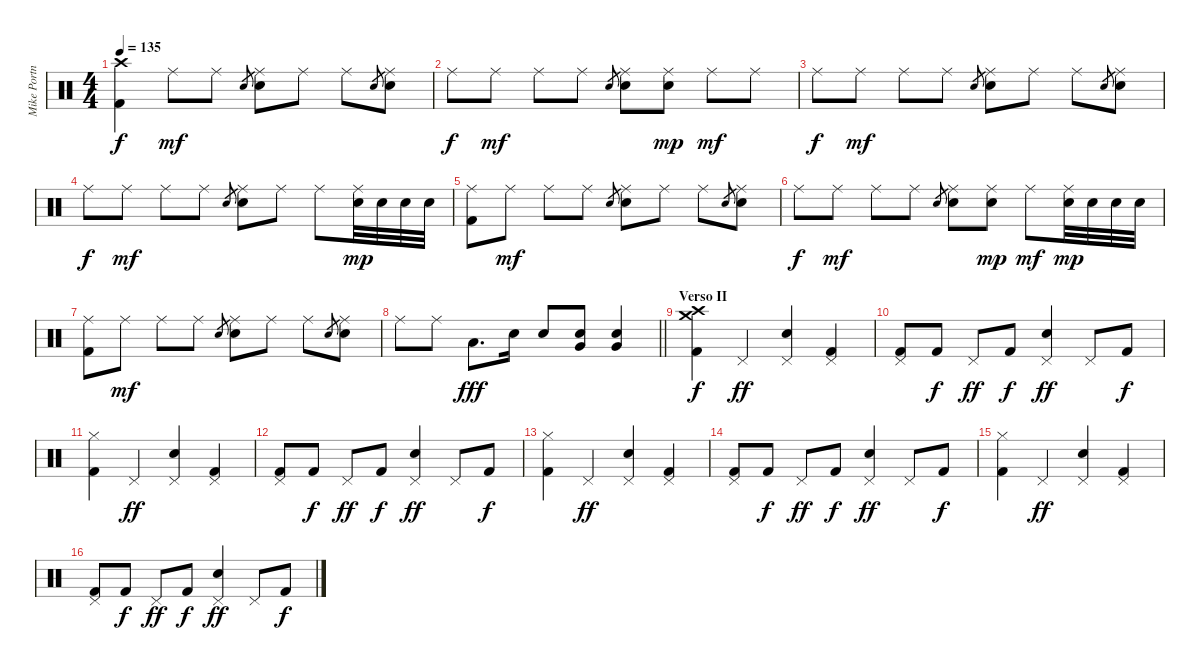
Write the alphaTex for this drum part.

\track ("Mike Portnoy" "Mike Portn") {instrument percussion}
\staff {score}
\articulation defaults
\ts (4 4)
\tempo 135
\clef neutral
\ks c
("Crash high (hit)" "Kick (hit) 2").4{dy f} "Ride (middle)".8{dy mf} "Ride (middle)".8 "Electric Snare (hit)".8{gr} ("Ride (middle)" "Electric Snare (hit)").8 "Ride (middle)".8 "Ride (middle)".8 "Electric Snare (hit)".8{gr} ("Ride (middle)" "Electric Snare (hit)").8 |
"Ride (middle)".8{dy f} "Ride (middle)".8{dy mf} "Ride (middle)".8 "Ride (middle)".8 "Electric Snare (hit)".8{gr} ("Ride (middle)" "Electric Snare (hit)").8 ("Ride (middle)" "Electric Snare (hit)").8{dy mp} "Ride (middle)".8{dy mf} "Ride (middle)".8 |
"Ride (middle)".8{dy f} "Ride (middle)".8{dy mf} "Ride (middle)".8 "Ride (middle)".8 "Electric Snare (hit)".8{gr} ("Ride (middle)" "Electric Snare (hit)").8 "Ride (middle)".8 "Ride (middle)".8 "Electric Snare (hit)".8{gr} ("Ride (middle)" "Electric Snare (hit)").8 |
"Ride (middle)".8{dy f} "Ride (middle)".8{dy mf} "Ride (middle)".8 "Ride (middle)".8 "Electric Snare (hit)".8{gr} ("Ride (middle)" "Electric Snare (hit)").8 "Ride (middle)".8 "Ride (middle)".8 ("Ride (middle)" "Electric Snare (hit)").32{dy mp} "Electric Snare (hit)".32 "Electric Snare (hit)".32 "Electric Snare (hit)".32 |
("Ride (middle)" "Kick (hit) 2").8 "Ride (middle)".8{dy mf} "Ride (middle)".8 "Ride (middle)".8 "Electric Snare (hit)".8{gr} ("Ride (middle)" "Electric Snare (hit)").8 "Ride (middle)".8 "Ride (middle)".8 "Electric Snare (hit)".8{gr} ("Ride (middle)" "Electric Snare (hit)").8 |
"Ride (middle)".8{dy f} "Ride (middle)".8{dy mf} "Ride (middle)".8 "Ride (middle)".8 "Electric Snare (hit)".8{gr} ("Ride (middle)" "Electric Snare (hit)").8 ("Ride (middle)" "Electric Snare (hit)").8{dy mp} "Ride (middle)".8{dy mf} ("Ride (middle)" "Electric Snare (hit)").32{dy mp} "Electric Snare (hit)".32 "Electric Snare (hit)".32 "Electric Snare (hit)".32 |
("Ride (middle)" "Kick (hit) 2").8 "Ride (middle)".8{dy mf} "Ride (middle)".8 "Ride (middle)".8 "Electric Snare (hit)".8{gr} ("Ride (middle)" "Electric Snare (hit)").8 "Ride (middle)".8 "Ride (middle)".8 "Electric Snare (hit)".8{gr} ("Ride (middle)" "Electric Snare (hit)").8 |
\barLineRight lightlight "Ride (middle)".8 "Ride (middle)".8 "Low Tom (hit)".8{d dy fff} "Snare (hit) 2".16 "Electric Snare (hit)".8
("Electric Snare (hit)" "Very Low Tom (hit)").8 ("Electric Snare (hit)" "Very Low Tom (hit)").4 |
\section ("" "Verso II")
("Crash high (hit)" "Crash medium (hit)" "Kick (hit) 2").4{dy f} "Pedal Hi-Hat (hit)".4{dy ff} ("Pedal Hi-Hat (hit)" "Electric Snare (hit)").4 ("Pedal Hi-Hat (hit)" "Kick (hit) 2").4 |
("Pedal Hi-Hat (hit)" "Kick (hit) 2").8 "Kick (hit) 2".8{dy f} "Pedal Hi-Hat (hit)".8{dy ff} "Kick (hit) 2".8{dy f} ("Pedal Hi-Hat (hit)" "Electric Snare (hit)").4{dy ff} "Pedal Hi-Hat (hit)".8 "Kick (hit) 2".8{dy f} |
("Hi-Hat (closed)" "Kick (hit) 2").4 "Pedal Hi-Hat (hit)".4{dy ff} ("Pedal Hi-Hat (hit)" "Electric Snare (hit)").4 ("Pedal Hi-Hat (hit)" "Kick (hit) 2").4 |
("Pedal Hi-Hat (hit)" "Kick (hit) 2").8 "Kick (hit) 2".8{dy f} "Pedal Hi-Hat (hit)".8{dy ff} "Kick (hit) 2".8{dy f} ("Pedal Hi-Hat (hit)" "Electric Snare (hit)").4{dy ff} "Pedal Hi-Hat (hit)".8 "Kick (hit) 2".8{dy f} |
("Hi-Hat (closed)" "Kick (hit) 2").4 "Pedal Hi-Hat (hit)".4{dy ff} ("Pedal Hi-Hat (hit)" "Electric Snare (hit)").4 ("Pedal Hi-Hat (hit)" "Kick (hit) 2").4 |
("Pedal Hi-Hat (hit)" "Kick (hit) 2").8 "Kick (hit) 2".8{dy f} "Pedal Hi-Hat (hit)".8{dy ff} "Kick (hit) 2".8{dy f} ("Pedal Hi-Hat (hit)" "Electric Snare (hit)").4{dy ff} "Pedal Hi-Hat (hit)".8 "Kick (hit) 2".8{dy f} |
("Hi-Hat (closed)" "Kick (hit) 2").4 "Pedal Hi-Hat (hit)".4{dy ff} ("Pedal Hi-Hat (hit)" "Electric Snare (hit)").4 ("Pedal Hi-Hat (hit)" "Kick (hit) 2").4 |
("Pedal Hi-Hat (hit)" "Kick (hit) 2").8 "Kick (hit) 2".8{dy f} "Pedal Hi-Hat (hit)".8{dy ff} "Kick (hit) 2".8{dy f} ("Pedal Hi-Hat (hit)" "Electric Snare (hit)").4{dy ff} "Pedal Hi-Hat (hit)".8 "Kick (hit) 2".8{dy f}
